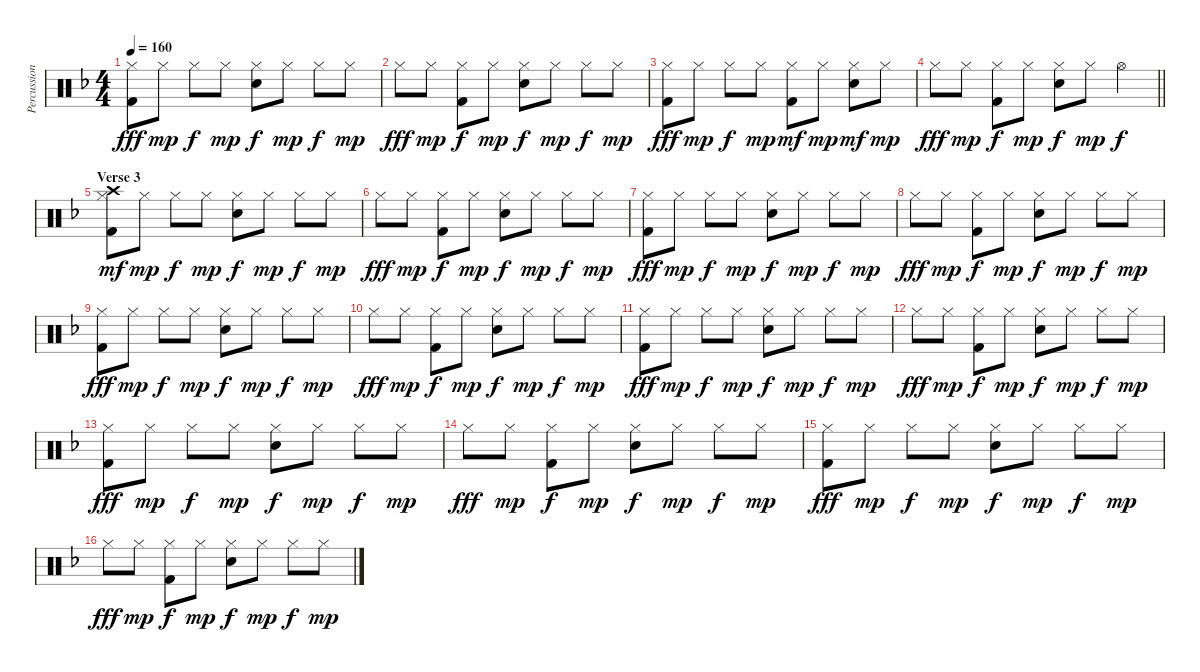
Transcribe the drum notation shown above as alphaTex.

\track ("Percussion" "Percussion") {instrument percussion}
\staff {score}
\articulation defaults
\ts (4 4)
\tempo 160
\clef neutral
\ks f
("Hi-Hat (closed)" "Kick (hit) 2").8{dy fff} "Hi-Hat (closed)".8{dy mp} "Hi-Hat (closed)".8{dy f} "Hi-Hat (closed)".8{dy mp} ("Hi-Hat (closed)" "Electric Snare (hit)").8{dy f} "Hi-Hat (closed)".8{dy mp} "Hi-Hat (closed)".8{dy f} "Hi-Hat (closed)".8{dy mp} |
"Hi-Hat (closed)".8{dy fff} "Hi-Hat (closed)".8{dy mp} ("Hi-Hat (closed)" "Kick (hit) 2").8{dy f} "Hi-Hat (closed)".8{dy mp} ("Hi-Hat (closed)" "Electric Snare (hit)").8{dy f} "Hi-Hat (closed)".8{dy mp} "Hi-Hat (closed)".8{dy f} "Hi-Hat (closed)".8{dy mp} |
("Hi-Hat (closed)" "Kick (hit) 2").8{dy fff} "Hi-Hat (closed)".8{dy mp} "Hi-Hat (closed)".8{dy f} "Hi-Hat (closed)".8{dy mp} ("Hi-Hat (closed)" "Kick (hit) 2").8{dy mf} "Hi-Hat (closed)".8{dy mp} ("Hi-Hat (closed)" "Electric Snare (hit)").8{dy mf} "Hi-Hat (closed)".8{dy mp} |
\barLineRight lightlight "Hi-Hat (closed)".8{dy fff} "Hi-Hat (closed)".8{dy mp}
("Hi-Hat (closed)" "Kick (hit) 2").8{dy f} "Hi-Hat (closed)".8{dy mp} ("Hi-Hat (closed)" "Electric Snare (hit)").8{dy f} "Hi-Hat (closed)".8{dy mp} "Hi-Hat (open)".4{dy f} |
\section ("" "Verse 3")
("Hi-Hat (closed)" "Crash high (hit)" "Kick (hit) 2").8{dy mf} "Hi-Hat (closed)".8{dy mp} "Hi-Hat (closed)".8{dy f} "Hi-Hat (closed)".8{dy mp} ("Hi-Hat (closed)" "Electric Snare (hit)").8{dy f} "Hi-Hat (closed)".8{dy mp} "Hi-Hat (closed)".8{dy f} "Hi-Hat (closed)".8{dy mp} |
"Hi-Hat (closed)".8{dy fff} "Hi-Hat (closed)".8{dy mp} ("Hi-Hat (closed)" "Kick (hit) 2").8{dy f} "Hi-Hat (closed)".8{dy mp} ("Hi-Hat (closed)" "Electric Snare (hit)").8{dy f} "Hi-Hat (closed)".8{dy mp} "Hi-Hat (closed)".8{dy f} "Hi-Hat (closed)".8{dy mp} |
("Hi-Hat (closed)" "Kick (hit) 2").8{dy fff} "Hi-Hat (closed)".8{dy mp} "Hi-Hat (closed)".8{dy f} "Hi-Hat (closed)".8{dy mp} ("Hi-Hat (closed)" "Electric Snare (hit)").8{dy f} "Hi-Hat (closed)".8{dy mp} "Hi-Hat (closed)".8{dy f} "Hi-Hat (closed)".8{dy mp} |
"Hi-Hat (closed)".8{dy fff} "Hi-Hat (closed)".8{dy mp} ("Hi-Hat (closed)" "Kick (hit) 2").8{dy f} "Hi-Hat (closed)".8{dy mp} ("Hi-Hat (closed)" "Electric Snare (hit)").8{dy f} "Hi-Hat (closed)".8{dy mp} "Hi-Hat (closed)".8{dy f} "Hi-Hat (closed)".8{dy mp} |
("Hi-Hat (closed)" "Kick (hit) 2").8{dy fff} "Hi-Hat (closed)".8{dy mp} "Hi-Hat (closed)".8{dy f} "Hi-Hat (closed)".8{dy mp} ("Hi-Hat (closed)" "Electric Snare (hit)").8{dy f} "Hi-Hat (closed)".8{dy mp} "Hi-Hat (closed)".8{dy f} "Hi-Hat (closed)".8{dy mp} |
"Hi-Hat (closed)".8{dy fff} "Hi-Hat (closed)".8{dy mp} ("Hi-Hat (closed)" "Kick (hit) 2").8{dy f} "Hi-Hat (closed)".8{dy mp} ("Hi-Hat (closed)" "Electric Snare (hit)").8{dy f} "Hi-Hat (closed)".8{dy mp} "Hi-Hat (closed)".8{dy f} "Hi-Hat (closed)".8{dy mp} |
("Hi-Hat (closed)" "Kick (hit) 2").8{dy fff} "Hi-Hat (closed)".8{dy mp} "Hi-Hat (closed)".8{dy f} "Hi-Hat (closed)".8{dy mp} ("Hi-Hat (closed)" "Electric Snare (hit)").8{dy f} "Hi-Hat (closed)".8{dy mp} "Hi-Hat (closed)".8{dy f} "Hi-Hat (closed)".8{dy mp} |
"Hi-Hat (closed)".8{dy fff} "Hi-Hat (closed)".8{dy mp} ("Hi-Hat (closed)" "Kick (hit) 2").8{dy f} "Hi-Hat (closed)".8{dy mp} ("Hi-Hat (closed)" "Electric Snare (hit)").8{dy f} "Hi-Hat (closed)".8{dy mp} "Hi-Hat (closed)".8{dy f} "Hi-Hat (closed)".8{dy mp} |
("Hi-Hat (closed)" "Kick (hit) 2").8{dy fff} "Hi-Hat (closed)".8{dy mp} "Hi-Hat (closed)".8{dy f} "Hi-Hat (closed)".8{dy mp} ("Hi-Hat (closed)" "Electric Snare (hit)").8{dy f} "Hi-Hat (closed)".8{dy mp} "Hi-Hat (closed)".8{dy f} "Hi-Hat (closed)".8{dy mp} |
"Hi-Hat (closed)".8{dy fff} "Hi-Hat (closed)".8{dy mp} ("Hi-Hat (closed)" "Kick (hit) 2").8{dy f} "Hi-Hat (closed)".8{dy mp} ("Hi-Hat (closed)" "Electric Snare (hit)").8{dy f} "Hi-Hat (closed)".8{dy mp} "Hi-Hat (closed)".8{dy f} "Hi-Hat (closed)".8{dy mp} |
("Hi-Hat (closed)" "Kick (hit) 2").8{dy fff} "Hi-Hat (closed)".8{dy mp} "Hi-Hat (closed)".8{dy f} "Hi-Hat (closed)".8{dy mp} ("Hi-Hat (closed)" "Electric Snare (hit)").8{dy f} "Hi-Hat (closed)".8{dy mp} "Hi-Hat (closed)".8{dy f} "Hi-Hat (closed)".8{dy mp} |
"Hi-Hat (closed)".8{dy fff} "Hi-Hat (closed)".8{dy mp} ("Hi-Hat (closed)" "Kick (hit) 2").8{dy f} "Hi-Hat (closed)".8{dy mp} ("Hi-Hat (closed)" "Electric Snare (hit)").8{dy f} "Hi-Hat (closed)".8{dy mp} "Hi-Hat (closed)".8{dy f} "Hi-Hat (closed)".8{dy mp}
